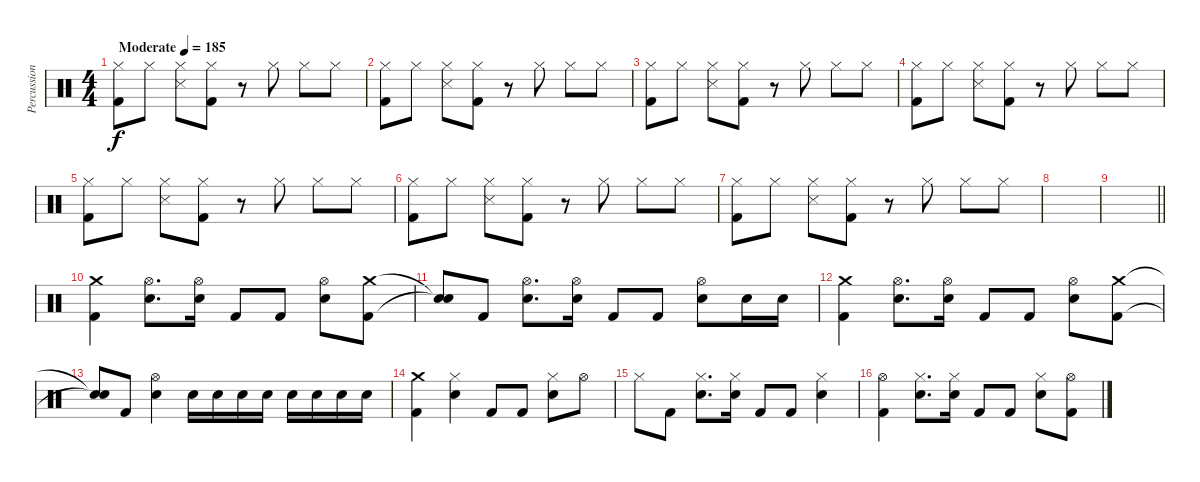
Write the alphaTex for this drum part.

\track ("Percussion" "Percussion") {instrument percussion}
\staff {score}
\articulation defaults
\ts (4 4)
\tempo (185 "Moderate")
\clef neutral
\ks c
("Hi-Hat (closed)" "Kick (hit) 2").8{dy f} "Hi-Hat (closed)".8 ("Hi-Hat (closed)" "Snare (side stick) 3").8 ("Hi-Hat (closed)" "Kick (hit) 2").8 r.8 "Hi-Hat (closed)".8 "Hi-Hat (closed)".8 "Hi-Hat (closed)".8 |
("Hi-Hat (closed)" "Kick (hit) 2").8 "Hi-Hat (closed)".8 ("Hi-Hat (closed)" "Snare (side stick) 3").8 ("Hi-Hat (closed)" "Kick (hit) 2").8 r.8 "Hi-Hat (closed)".8 "Hi-Hat (closed)".8 "Hi-Hat (closed)".8 |
("Hi-Hat (closed)" "Kick (hit) 2").8 "Hi-Hat (closed)".8 ("Hi-Hat (closed)" "Snare (side stick) 3").8 ("Hi-Hat (closed)" "Kick (hit) 2").8 r.8 "Hi-Hat (closed)".8 "Hi-Hat (closed)".8 "Hi-Hat (closed)".8 |
("Hi-Hat (closed)" "Kick (hit) 2").8 "Hi-Hat (closed)".8 ("Hi-Hat (closed)" "Snare (side stick) 3").8 ("Hi-Hat (closed)" "Kick (hit) 2").8 r.8 "Hi-Hat (closed)".8 "Hi-Hat (closed)".8 "Hi-Hat (closed)".8 |
("Hi-Hat (closed)" "Kick (hit) 2").8 "Hi-Hat (closed)".8 ("Hi-Hat (closed)" "Snare (side stick) 3").8 ("Hi-Hat (closed)" "Kick (hit) 2").8 r.8 "Hi-Hat (closed)".8 "Hi-Hat (closed)".8 "Hi-Hat (closed)".8 |
("Hi-Hat (closed)" "Kick (hit) 2").8 "Hi-Hat (closed)".8 ("Hi-Hat (closed)" "Snare (side stick) 3").8 ("Hi-Hat (closed)" "Kick (hit) 2").8 r.8 "Hi-Hat (closed)".8 "Hi-Hat (closed)".8 "Hi-Hat (closed)".8 |
("Hi-Hat (closed)" "Kick (hit) 2").8 "Hi-Hat (closed)".8 ("Hi-Hat (closed)" "Snare (side stick) 3").8 ("Hi-Hat (closed)" "Kick (hit) 2").8 r.8 "Hi-Hat (closed)".8 "Hi-Hat (closed)".8 "Hi-Hat (closed)".8 |
|
\barLineRight lightlight
|
("Crash medium (hit)" "Kick (hit) 2").4 ("Hi-Hat (open)" "Electric Snare (hit)").8{d} ("Hi-Hat (open)" "Electric Snare (hit)").16 "Kick (hit) 2".8 "Kick (hit) 2".8 ("Hi-Hat (open)" "Electric Snare (hit)").8 ("Crash medium (hit)" "Kick (hit) 2").8 |
("Snare (hit)"{t} "Snare (hit)"{t}).8 "Kick (hit) 2".8 ("Hi-Hat (open)" "Electric Snare (hit)").8{d} ("Hi-Hat (open)" "Electric Snare (hit)").16 "Kick (hit) 2".8 "Kick (hit) 2".8 ("Hi-Hat (open)" "Electric Snare (hit)").8 "Electric Snare (hit)".16 "Electric Snare (hit)".16 |
("Crash medium (hit)" "Kick (hit) 2").4 ("Hi-Hat (open)" "Electric Snare (hit)").8{d} ("Hi-Hat (open)" "Electric Snare (hit)").16 "Kick (hit) 2".8 "Kick (hit) 2".8 ("Hi-Hat (open)" "Electric Snare (hit)").8 ("Crash medium (hit)" "Kick (hit) 2").8 |
("Snare (hit)"{t} "Snare (hit)"{t}).8 "Kick (hit) 2".8 ("Hi-Hat (open)" "Electric Snare (hit)").4 "Electric Snare (hit)".16 "Electric Snare (hit)".16 "Electric Snare (hit)".16 "Electric Snare (hit)".16 "Electric Snare (hit)".16 "Electric Snare (hit)".16 "Electric Snare (hit)".16 "Electric Snare (hit)".16 |
("Crash medium (hit)" "Kick (hit) 2").4 ("Hi-Hat (closed)" "Electric Snare (hit)").4 "Kick (hit) 2".8 "Kick (hit) 2".8 ("Hi-Hat (closed)" "Electric Snare (hit)").8 "Hi-Hat (open)".8 |
"Hi-Hat (closed)".8 "Kick (hit) 2".8 ("Hi-Hat (closed)" "Electric Snare (hit)").8{d} ("Hi-Hat (closed)" "Electric Snare (hit)").16 "Kick (hit) 2".8 "Kick (hit) 2".8 ("Hi-Hat (closed)" "Electric Snare (hit)").4 |
("Hi-Hat (open)" "Kick (hit) 2").4 ("Hi-Hat (closed)" "Electric Snare (hit)").8{d} ("Hi-Hat (closed)" "Electric Snare (hit)").16 "Kick (hit) 2".8 "Kick (hit) 2".8 ("Hi-Hat (closed)" "Electric Snare (hit)").8 ("Hi-Hat (open)" "Kick (hit) 2").8
